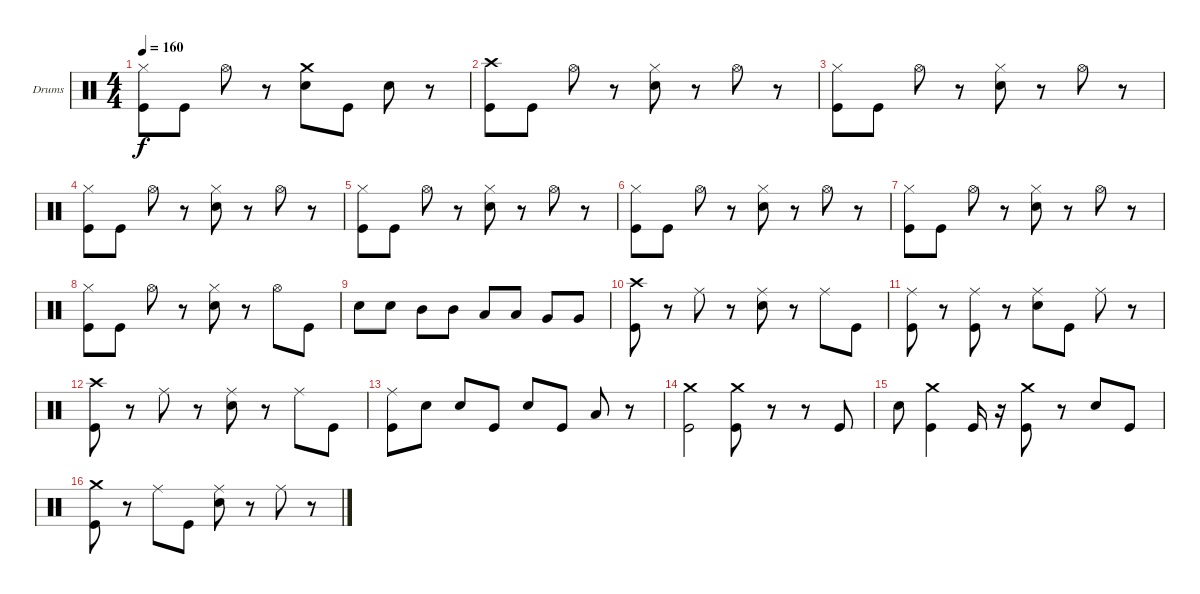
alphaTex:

\bracketExtendMode groupsimilarinstruments
\firstSystemTrackNameOrientation horizontal
\otherSystemsTrackNameOrientation horizontal
\track ("Drumkit" "Drums") {instrument percussion}
\staff {score}
\articulation defaults
\ts (4 4)
\tempo 160
\clef neutral
\ks c
("Hi-Hat (closed)" "Kick (hit)").8{dy f} "Kick (hit)".8 "Hi-Hat (open)".8 r.8 ("Crash medium (hit)" "Snare (hit) 2").8 "Kick (hit)".8 "Snare (hit) 2".8 r.8 |
("Crash high (hit)" "Kick (hit)").8 "Kick (hit)".8 "Hi-Hat (open)".8 r.8 ("Hi-Hat (closed)" "Snare (hit) 2").8 r.8 "Hi-Hat (open)".8 r.8 |
("Hi-Hat (closed)" "Kick (hit)").8 "Kick (hit)".8 "Hi-Hat (open)".8 r.8 ("Hi-Hat (closed)" "Snare (hit) 2").8 r.8 "Hi-Hat (open)".8 r.8 |
("Hi-Hat (closed)" "Kick (hit)").8 "Kick (hit)".8 "Hi-Hat (open)".8 r.8 ("Hi-Hat (closed)" "Snare (hit) 2").8 r.8 "Hi-Hat (open)".8 r.8 |
("Hi-Hat (closed)" "Kick (hit)").8 "Kick (hit)".8 "Hi-Hat (open)".8 r.8 ("Hi-Hat (closed)" "Snare (hit) 2").8 r.8 "Hi-Hat (open)".8 r.8 |
("Hi-Hat (closed)" "Kick (hit)").8 "Kick (hit)".8 "Hi-Hat (open)".8 r.8 ("Hi-Hat (closed)" "Snare (hit) 2").8 r.8 "Hi-Hat (open)".8 r.8 |
("Hi-Hat (closed)" "Kick (hit)").8 "Kick (hit)".8 "Hi-Hat (open)".8 r.8 ("Hi-Hat (closed)" "Snare (hit) 2").8 r.8 "Hi-Hat (open)".8 r.8 |
("Hi-Hat (closed)" "Kick (hit)").8 "Kick (hit)".8 "Hi-Hat (open)".8 r.8 ("Hi-Hat (closed)" "Snare (hit) 2").8 r.8 "Hi-Hat (open)".8 "Kick (hit)".8 |
"Snare (hit) 2".8 "Snare (hit) 2".8 "Mid Tom (hit)".8 "Mid Tom (hit)".8 "Low Tom (hit)".8 "Low Tom (hit)".8 "Very Low Tom (hit)".8 "Very Low Tom (hit)".8 |
("Crash high (hit)" "Kick (hit)").8 r.8 "Ride (middle)".8 r.8 ("Ride (middle)" "Snare (hit) 2").8 r.8 "Ride (middle)".8 "Kick (hit)".8 |
("Ride (middle)" "Kick (hit)").8 r.8 ("Ride (middle)" "Kick (hit)").8 r.8 ("Ride (middle)" "Snare (hit) 2").8 "Kick (hit)".8 "Ride (middle)".8 r.8 |
("Crash high (hit)" "Kick (hit)").8 r.8 "Ride (middle)".8 r.8 ("Ride (middle)" "Snare (hit) 2").8 r.8 "Ride (middle)".8 "Kick (hit)".8 |
("Ride (middle)" "Kick (hit)").8 "Snare (hit) 2".8 "Snare (hit) 2".8 "Kick (hit)".8 "Snare (hit) 2".8 "Kick (hit)".8 "Low Tom (hit)".8 r.8 |
("Crash medium (hit)" "Kick (hit)").2 ("Crash medium (hit)" "Kick (hit)").8 r.8 r.8 "Kick (hit)".8 |
"Snare (hit) 2".8 ("Crash medium (hit)" "Kick (hit)").4 "Kick (hit)".16 r.16 ("Crash medium (hit)" "Kick (hit)").8 r.8 "Snare (hit) 2".8 "Kick (hit)".8 |
("Crash medium (hit)" "Kick (hit)").8 r.8 "Ride (middle)".8 "Kick (hit)".8 ("Ride (middle)" "Snare (hit) 2").8 r.8 "Ride (middle)".8 r.8
